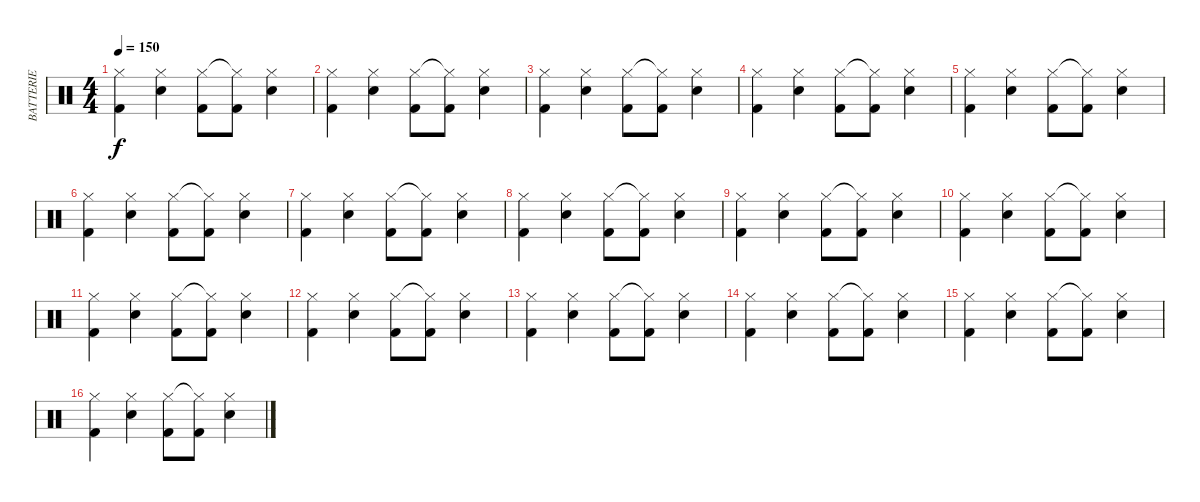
\track ("BATTERIE" "BATTERIE") {instrument percussion}
\staff {score}
\articulation defaults
\ts (4 4)
\tempo 150
\clef neutral
\ks c
("Hi-Hat (closed)" "Kick (hit) 2").4{dy f} ("Hi-Hat (closed)" "Snare (hit) 2").4 ("Hi-Hat (closed)" "Kick (hit) 2").8 ("Hi-Hat (closed)"{t} "Kick (hit) 2").8 ("Hi-Hat (closed)" "Snare (hit) 2").4 |
("Hi-Hat (closed)" "Kick (hit) 2").4 ("Hi-Hat (closed)" "Snare (hit) 2").4 ("Hi-Hat (closed)" "Kick (hit) 2").8 ("Hi-Hat (closed)"{t} "Kick (hit) 2").8 ("Hi-Hat (closed)" "Snare (hit) 2").4 |
("Hi-Hat (closed)" "Kick (hit) 2").4 ("Hi-Hat (closed)" "Snare (hit) 2").4 ("Hi-Hat (closed)" "Kick (hit) 2").8 ("Hi-Hat (closed)"{t} "Kick (hit) 2").8 ("Hi-Hat (closed)" "Snare (hit) 2").4 |
("Hi-Hat (closed)" "Kick (hit) 2").4 ("Hi-Hat (closed)" "Snare (hit) 2").4 ("Hi-Hat (closed)" "Kick (hit) 2").8 ("Hi-Hat (closed)"{t} "Kick (hit) 2").8 ("Hi-Hat (closed)" "Snare (hit) 2").4 |
("Hi-Hat (closed)" "Kick (hit) 2").4 ("Hi-Hat (closed)" "Snare (hit) 2").4 ("Hi-Hat (closed)" "Kick (hit) 2").8 ("Hi-Hat (closed)"{t} "Kick (hit) 2").8 ("Hi-Hat (closed)" "Snare (hit) 2").4 |
("Hi-Hat (closed)" "Kick (hit) 2").4 ("Hi-Hat (closed)" "Snare (hit) 2").4 ("Hi-Hat (closed)" "Kick (hit) 2").8 ("Hi-Hat (closed)"{t} "Kick (hit) 2").8 ("Hi-Hat (closed)" "Snare (hit) 2").4 |
("Hi-Hat (closed)" "Kick (hit) 2").4 ("Hi-Hat (closed)" "Snare (hit) 2").4 ("Hi-Hat (closed)" "Kick (hit) 2").8 ("Hi-Hat (closed)"{t} "Kick (hit) 2").8 ("Hi-Hat (closed)" "Snare (hit) 2").4 |
("Hi-Hat (closed)" "Kick (hit) 2").4 ("Hi-Hat (closed)" "Snare (hit) 2").4 ("Hi-Hat (closed)" "Kick (hit) 2").8 ("Hi-Hat (closed)"{t} "Kick (hit) 2").8 ("Hi-Hat (closed)" "Snare (hit) 2").4 |
("Hi-Hat (closed)" "Kick (hit) 2").4 ("Hi-Hat (closed)" "Snare (hit) 2").4 ("Hi-Hat (closed)" "Kick (hit) 2").8 ("Hi-Hat (closed)"{t} "Kick (hit) 2").8 ("Hi-Hat (closed)" "Snare (hit) 2").4 |
("Hi-Hat (closed)" "Kick (hit) 2").4 ("Hi-Hat (closed)" "Snare (hit) 2").4 ("Hi-Hat (closed)" "Kick (hit) 2").8 ("Hi-Hat (closed)"{t} "Kick (hit) 2").8 ("Hi-Hat (closed)" "Snare (hit) 2").4 |
("Hi-Hat (closed)" "Kick (hit) 2").4 ("Hi-Hat (closed)" "Snare (hit) 2").4 ("Hi-Hat (closed)" "Kick (hit) 2").8 ("Hi-Hat (closed)"{t} "Kick (hit) 2").8 ("Hi-Hat (closed)" "Snare (hit) 2").4 |
("Hi-Hat (closed)" "Kick (hit) 2").4 ("Hi-Hat (closed)" "Snare (hit) 2").4 ("Hi-Hat (closed)" "Kick (hit) 2").8 ("Hi-Hat (closed)"{t} "Kick (hit) 2").8 ("Hi-Hat (closed)" "Snare (hit) 2").4 |
("Hi-Hat (closed)" "Kick (hit) 2").4 ("Hi-Hat (closed)" "Snare (hit) 2").4 ("Hi-Hat (closed)" "Kick (hit) 2").8 ("Hi-Hat (closed)"{t} "Kick (hit) 2").8 ("Hi-Hat (closed)" "Snare (hit) 2").4 |
("Hi-Hat (closed)" "Kick (hit) 2").4 ("Hi-Hat (closed)" "Snare (hit) 2").4 ("Hi-Hat (closed)" "Kick (hit) 2").8 ("Hi-Hat (closed)"{t} "Kick (hit) 2").8 ("Hi-Hat (closed)" "Snare (hit) 2").4 |
("Hi-Hat (closed)" "Kick (hit) 2").4 ("Hi-Hat (closed)" "Snare (hit) 2").4 ("Hi-Hat (closed)" "Kick (hit) 2").8 ("Hi-Hat (closed)"{t} "Kick (hit) 2").8 ("Hi-Hat (closed)" "Snare (hit) 2").4 |
("Hi-Hat (closed)" "Kick (hit) 2").4 ("Hi-Hat (closed)" "Snare (hit) 2").4 ("Hi-Hat (closed)" "Kick (hit) 2").8 ("Hi-Hat (closed)"{t} "Kick (hit) 2").8 ("Hi-Hat (closed)" "Snare (hit) 2").4
